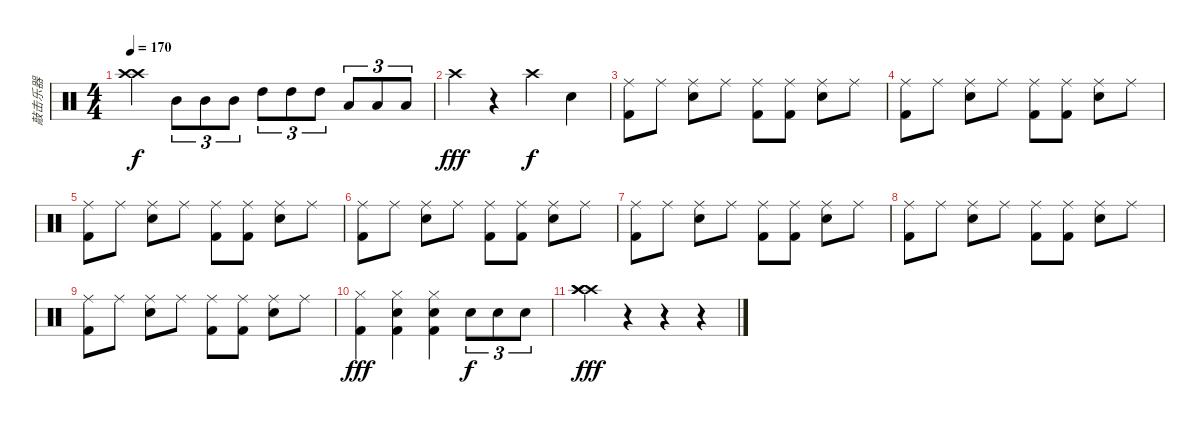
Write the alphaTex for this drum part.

\track ("敲击乐器" "敲击乐器") {instrument percussion}
\staff {score}
\articulation defaults
\ts (4 4)
\tempo 170
\clef neutral
\ks c
("Crash high (hit)" "Crash high (hit)").4{dy f} "Mid Tom (hit)".8{tu (3 2)} "Mid Tom (hit)".8{tu (3 2)} "Mid Tom (hit)".8{tu (3 2)} "High Tom (hit)".8{tu (3 2)} "High Tom (hit)".8{tu (3 2)} "High Tom (hit)".8{tu (3 2)} "Low Floor Tom (hit)".8{tu (3 2)} "Low Floor Tom (hit)".8{tu (3 2)} "Low Floor Tom (hit)".8{tu (3 2)} |
"Crash high (hit)".4{dy fff} r.4 "Crash high (hit)".4{dy f} "Snare (hit) 2".4 |
("Ride (middle)" "Kick (hit) 2").8 "Ride (middle)".8 ("Ride (middle)" "Snare (hit) 2").8 "Ride (middle)".8 ("Ride (middle)" "Kick (hit) 2").8 ("Ride (middle)" "Kick (hit) 2").8 ("Ride (middle)" "Snare (hit) 2").8 "Ride (middle)".8 |
("Ride (middle)" "Kick (hit) 2").8 "Ride (middle)".8 ("Ride (middle)" "Snare (hit) 2").8 "Ride (middle)".8 ("Ride (middle)" "Kick (hit) 2").8 ("Ride (middle)" "Kick (hit) 2").8 ("Ride (middle)" "Snare (hit) 2").8 "Ride (middle)".8 |
("Ride (middle)" "Kick (hit) 2").8 "Ride (middle)".8 ("Ride (middle)" "Snare (hit) 2").8 "Ride (middle)".8 ("Ride (middle)" "Kick (hit) 2").8 ("Ride (middle)" "Kick (hit) 2").8 ("Ride (middle)" "Snare (hit) 2").8 "Ride (middle)".8 |
("Ride (middle)" "Kick (hit) 2").8 "Ride (middle)".8 ("Ride (middle)" "Snare (hit) 2").8 "Ride (middle)".8 ("Ride (middle)" "Kick (hit) 2").8 ("Ride (middle)" "Kick (hit) 2").8 ("Ride (middle)" "Snare (hit) 2").8 "Ride (middle)".8 |
("Ride (middle)" "Kick (hit) 2").8 "Ride (middle)".8 ("Ride (middle)" "Snare (hit) 2").8 "Ride (middle)".8 ("Ride (middle)" "Kick (hit) 2").8 ("Ride (middle)" "Kick (hit) 2").8 ("Ride (middle)" "Snare (hit) 2").8 "Ride (middle)".8 |
("Ride (middle)" "Kick (hit) 2").8 "Ride (middle)".8 ("Ride (middle)" "Snare (hit) 2").8 "Ride (middle)".8 ("Ride (middle)" "Kick (hit) 2").8 ("Ride (middle)" "Kick (hit) 2").8 ("Ride (middle)" "Snare (hit) 2").8 "Ride (middle)".8 |
("Ride (middle)" "Kick (hit) 2").8 "Ride (middle)".8 ("Ride (middle)" "Snare (hit) 2").8 "Ride (middle)".8 ("Ride (middle)" "Kick (hit) 2").8 ("Ride (middle)" "Kick (hit) 2").8 ("Ride (middle)" "Snare (hit) 2").8 "Ride (middle)".8 |
("Hi-Hat (closed)" "Kick (hit) 2").4{dy fff} ("Hi-Hat (closed)" "Kick (hit) 2" "Snare (hit) 2").4 ("Hi-Hat (closed)" "Kick (hit) 2" "Snare (hit) 2").4 "Snare (hit) 2".8{tu (3 2) dy f} "Snare (hit) 2".8{tu (3 2)} "Snare (hit) 2".8{tu (3 2)} |
("Crash high (hit)" "Crash high (hit)" "Crash high (hit)").4{dy fff} r.4 r.4 r.4
